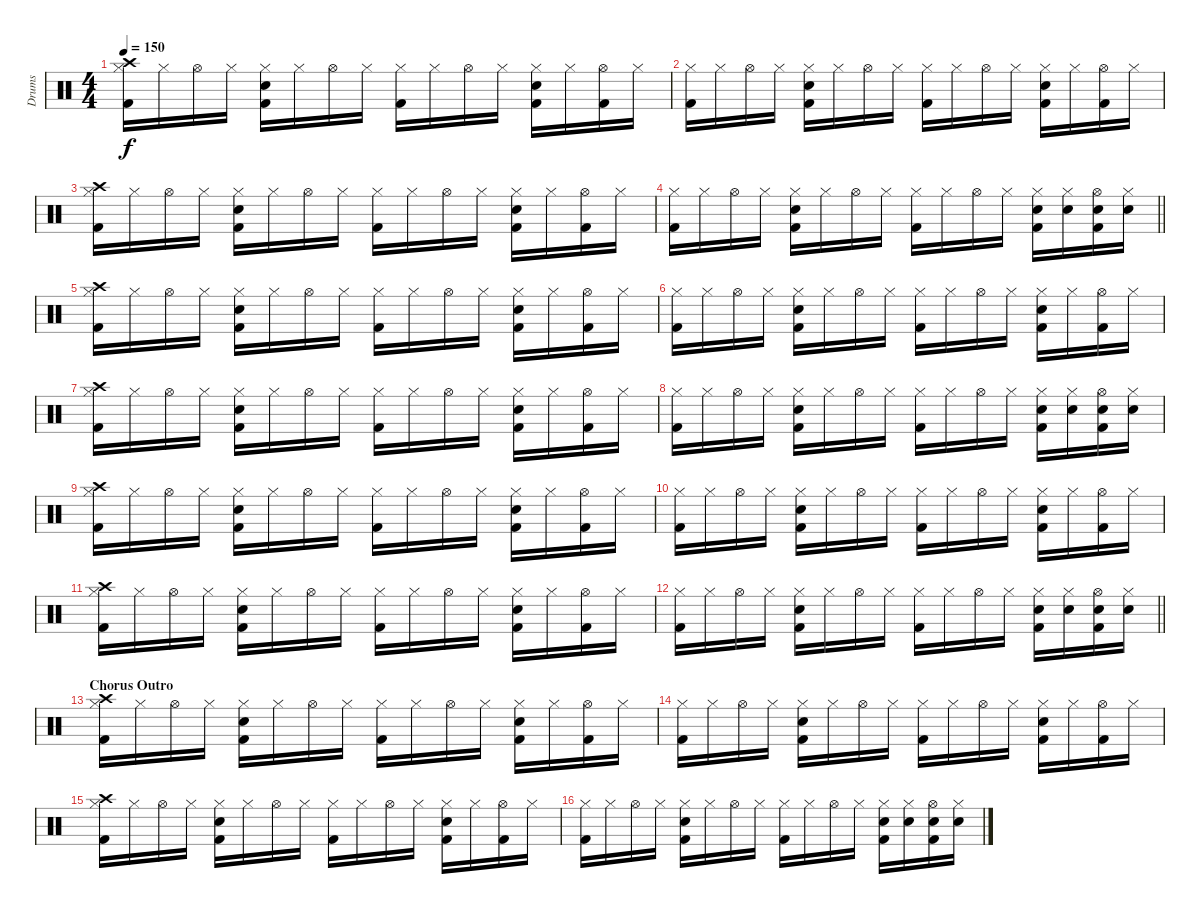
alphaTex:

\track ("Drums" "Drums") {instrument percussion}
\staff {score}
\articulation defaults
\ts (4 4)
\tempo 150
\clef neutral
\ks c
("Crash high (hit)" "Hi-Hat (closed)" "Kick (hit) 2").16{dy f} "Hi-Hat (closed)".16 "Hi-Hat (open)".16 "Hi-Hat (closed)".16 ("Hi-Hat (closed)" "Electric Snare (hit)" "Kick (hit) 2").16 "Hi-Hat (closed)".16 "Hi-Hat (open)".16 "Hi-Hat (closed)".16 ("Hi-Hat (closed)" "Kick (hit) 2").16 "Hi-Hat (closed)".16 "Hi-Hat (open)".16 "Hi-Hat (closed)".16 ("Hi-Hat (closed)" "Electric Snare (hit)" "Kick (hit) 2").16 "Hi-Hat (closed)".16 ("Hi-Hat (open)" "Kick (hit) 2").16 "Hi-Hat (closed)".16 |
("Hi-Hat (closed)" "Kick (hit) 2").16 "Hi-Hat (closed)".16 "Hi-Hat (open)".16 "Hi-Hat (closed)".16 ("Hi-Hat (closed)" "Electric Snare (hit)" "Kick (hit) 2").16 "Hi-Hat (closed)".16 "Hi-Hat (open)".16 "Hi-Hat (closed)".16 ("Hi-Hat (closed)" "Kick (hit) 2").16 "Hi-Hat (closed)".16 "Hi-Hat (open)".16 "Hi-Hat (closed)".16 ("Hi-Hat (closed)" "Electric Snare (hit)" "Kick (hit) 2").16 "Hi-Hat (closed)".16 ("Hi-Hat (open)" "Kick (hit) 2").16 "Hi-Hat (closed)".16 |
("Crash high (hit)" "Hi-Hat (closed)" "Kick (hit) 2").16 "Hi-Hat (closed)".16 "Hi-Hat (open)".16 "Hi-Hat (closed)".16 ("Hi-Hat (closed)" "Electric Snare (hit)" "Kick (hit) 2").16 "Hi-Hat (closed)".16 "Hi-Hat (open)".16 "Hi-Hat (closed)".16 ("Hi-Hat (closed)" "Kick (hit) 2").16 "Hi-Hat (closed)".16 "Hi-Hat (open)".16 "Hi-Hat (closed)".16 ("Hi-Hat (closed)" "Electric Snare (hit)" "Kick (hit) 2").16 "Hi-Hat (closed)".16 ("Hi-Hat (open)" "Kick (hit) 2").16 "Hi-Hat (closed)".16 |
\barLineRight lightlight
("Hi-Hat (closed)" "Kick (hit) 2").16 "Hi-Hat (closed)".16 "Hi-Hat (open)".16 "Hi-Hat (closed)".16 ("Hi-Hat (closed)" "Electric Snare (hit)" "Kick (hit) 2").16 "Hi-Hat (closed)".16 "Hi-Hat (open)".16 "Hi-Hat (closed)".16 ("Hi-Hat (closed)" "Kick (hit) 2").16 "Hi-Hat (closed)".16 "Hi-Hat (open)".16 "Hi-Hat (closed)".16 ("Hi-Hat (closed)" "Electric Snare (hit)" "Kick (hit) 2").16 ("Hi-Hat (closed)" "Electric Snare (hit)").16 ("Hi-Hat (open)" "Electric Snare (hit)" "Kick (hit) 2").16 ("Hi-Hat (closed)" "Electric Snare (hit)").16 |
("Crash high (hit)" "Hi-Hat (closed)" "Kick (hit) 2").16 "Hi-Hat (closed)".16 "Hi-Hat (open)".16 "Hi-Hat (closed)".16 ("Hi-Hat (closed)" "Electric Snare (hit)" "Kick (hit) 2").16 "Hi-Hat (closed)".16 "Hi-Hat (open)".16 "Hi-Hat (closed)".16 ("Hi-Hat (closed)" "Kick (hit) 2").16 "Hi-Hat (closed)".16 "Hi-Hat (open)".16 "Hi-Hat (closed)".16 ("Hi-Hat (closed)" "Electric Snare (hit)" "Kick (hit) 2").16 "Hi-Hat (closed)".16 ("Hi-Hat (open)" "Kick (hit) 2").16 "Hi-Hat (closed)".16 |
("Hi-Hat (closed)" "Kick (hit) 2").16 "Hi-Hat (closed)".16 "Hi-Hat (open)".16 "Hi-Hat (closed)".16 ("Hi-Hat (closed)" "Electric Snare (hit)" "Kick (hit) 2").16 "Hi-Hat (closed)".16 "Hi-Hat (open)".16 "Hi-Hat (closed)".16 ("Hi-Hat (closed)" "Kick (hit) 2").16 "Hi-Hat (closed)".16 "Hi-Hat (open)".16 "Hi-Hat (closed)".16 ("Hi-Hat (closed)" "Electric Snare (hit)" "Kick (hit) 2").16 "Hi-Hat (closed)".16 ("Hi-Hat (open)" "Kick (hit) 2").16 "Hi-Hat (closed)".16 |
("Crash high (hit)" "Hi-Hat (closed)" "Kick (hit) 2").16 "Hi-Hat (closed)".16 "Hi-Hat (open)".16 "Hi-Hat (closed)".16 ("Hi-Hat (closed)" "Electric Snare (hit)" "Kick (hit) 2").16 "Hi-Hat (closed)".16 "Hi-Hat (open)".16 "Hi-Hat (closed)".16 ("Hi-Hat (closed)" "Kick (hit) 2").16 "Hi-Hat (closed)".16 "Hi-Hat (open)".16 "Hi-Hat (closed)".16 ("Hi-Hat (closed)" "Electric Snare (hit)" "Kick (hit) 2").16 "Hi-Hat (closed)".16 ("Hi-Hat (open)" "Kick (hit) 2").16 "Hi-Hat (closed)".16 |
("Hi-Hat (closed)" "Kick (hit) 2").16 "Hi-Hat (closed)".16 "Hi-Hat (open)".16 "Hi-Hat (closed)".16 ("Hi-Hat (closed)" "Electric Snare (hit)" "Kick (hit) 2").16 "Hi-Hat (closed)".16 "Hi-Hat (open)".16 "Hi-Hat (closed)".16 ("Hi-Hat (closed)" "Kick (hit) 2").16 "Hi-Hat (closed)".16 "Hi-Hat (open)".16 "Hi-Hat (closed)".16 ("Hi-Hat (closed)" "Electric Snare (hit)" "Kick (hit) 2").16 ("Hi-Hat (closed)" "Electric Snare (hit)").16 ("Hi-Hat (open)" "Electric Snare (hit)" "Kick (hit) 2").16 ("Hi-Hat (closed)" "Electric Snare (hit)").16 |
("Crash high (hit)" "Hi-Hat (closed)" "Kick (hit) 2").16 "Hi-Hat (closed)".16 "Hi-Hat (open)".16 "Hi-Hat (closed)".16 ("Hi-Hat (closed)" "Electric Snare (hit)" "Kick (hit) 2").16 "Hi-Hat (closed)".16 "Hi-Hat (open)".16 "Hi-Hat (closed)".16 ("Hi-Hat (closed)" "Kick (hit) 2").16 "Hi-Hat (closed)".16 "Hi-Hat (open)".16 "Hi-Hat (closed)".16 ("Hi-Hat (closed)" "Electric Snare (hit)" "Kick (hit) 2").16 "Hi-Hat (closed)".16 ("Hi-Hat (open)" "Kick (hit) 2").16 "Hi-Hat (closed)".16 |
("Hi-Hat (closed)" "Kick (hit) 2").16 "Hi-Hat (closed)".16 "Hi-Hat (open)".16 "Hi-Hat (closed)".16 ("Hi-Hat (closed)" "Electric Snare (hit)" "Kick (hit) 2").16 "Hi-Hat (closed)".16 "Hi-Hat (open)".16 "Hi-Hat (closed)".16 ("Hi-Hat (closed)" "Kick (hit) 2").16 "Hi-Hat (closed)".16 "Hi-Hat (open)".16 "Hi-Hat (closed)".16 ("Hi-Hat (closed)" "Electric Snare (hit)" "Kick (hit) 2").16 "Hi-Hat (closed)".16 ("Hi-Hat (open)" "Kick (hit) 2").16 "Hi-Hat (closed)".16 |
("Crash high (hit)" "Hi-Hat (closed)" "Kick (hit) 2").16 "Hi-Hat (closed)".16 "Hi-Hat (open)".16 "Hi-Hat (closed)".16 ("Hi-Hat (closed)" "Electric Snare (hit)" "Kick (hit) 2").16 "Hi-Hat (closed)".16 "Hi-Hat (open)".16 "Hi-Hat (closed)".16 ("Hi-Hat (closed)" "Kick (hit) 2").16 "Hi-Hat (closed)".16 "Hi-Hat (open)".16 "Hi-Hat (closed)".16 ("Hi-Hat (closed)" "Electric Snare (hit)" "Kick (hit) 2").16 "Hi-Hat (closed)".16 ("Hi-Hat (open)" "Kick (hit) 2").16 "Hi-Hat (closed)".16 |
\barLineRight lightlight
("Hi-Hat (closed)" "Kick (hit) 2").16 "Hi-Hat (closed)".16 "Hi-Hat (open)".16 "Hi-Hat (closed)".16 ("Hi-Hat (closed)" "Electric Snare (hit)" "Kick (hit) 2").16 "Hi-Hat (closed)".16 "Hi-Hat (open)".16 "Hi-Hat (closed)".16 ("Hi-Hat (closed)" "Kick (hit) 2").16 "Hi-Hat (closed)".16 "Hi-Hat (open)".16 "Hi-Hat (closed)".16 ("Hi-Hat (closed)" "Electric Snare (hit)" "Kick (hit) 2").16 ("Hi-Hat (closed)" "Electric Snare (hit)").16 ("Hi-Hat (open)" "Electric Snare (hit)" "Kick (hit) 2").16 ("Hi-Hat (closed)" "Electric Snare (hit)").16 |
\section ("" "Chorus Outro")
("Crash high (hit)" "Hi-Hat (closed)" "Kick (hit) 2").16 "Hi-Hat (closed)".16 "Hi-Hat (open)".16 "Hi-Hat (closed)".16 ("Hi-Hat (closed)" "Electric Snare (hit)" "Kick (hit) 2").16 "Hi-Hat (closed)".16 "Hi-Hat (open)".16 "Hi-Hat (closed)".16 ("Hi-Hat (closed)" "Kick (hit) 2").16 "Hi-Hat (closed)".16 "Hi-Hat (open)".16 "Hi-Hat (closed)".16 ("Hi-Hat (closed)" "Electric Snare (hit)" "Kick (hit) 2").16 "Hi-Hat (closed)".16 ("Hi-Hat (open)" "Kick (hit) 2").16 "Hi-Hat (closed)".16 |
("Hi-Hat (closed)" "Kick (hit) 2").16 "Hi-Hat (closed)".16 "Hi-Hat (open)".16 "Hi-Hat (closed)".16 ("Hi-Hat (closed)" "Electric Snare (hit)" "Kick (hit) 2").16 "Hi-Hat (closed)".16 "Hi-Hat (open)".16 "Hi-Hat (closed)".16 ("Hi-Hat (closed)" "Kick (hit) 2").16 "Hi-Hat (closed)".16 "Hi-Hat (open)".16 "Hi-Hat (closed)".16 ("Hi-Hat (closed)" "Electric Snare (hit)" "Kick (hit) 2").16 "Hi-Hat (closed)".16 ("Hi-Hat (open)" "Kick (hit) 2").16 "Hi-Hat (closed)".16 |
("Crash high (hit)" "Hi-Hat (closed)" "Kick (hit) 2").16 "Hi-Hat (closed)".16 "Hi-Hat (open)".16 "Hi-Hat (closed)".16 ("Hi-Hat (closed)" "Electric Snare (hit)" "Kick (hit) 2").16 "Hi-Hat (closed)".16 "Hi-Hat (open)".16 "Hi-Hat (closed)".16 ("Hi-Hat (closed)" "Kick (hit) 2").16 "Hi-Hat (closed)".16 "Hi-Hat (open)".16 "Hi-Hat (closed)".16 ("Hi-Hat (closed)" "Electric Snare (hit)" "Kick (hit) 2").16 "Hi-Hat (closed)".16 ("Hi-Hat (open)" "Kick (hit) 2").16 "Hi-Hat (closed)".16 |
("Hi-Hat (closed)" "Kick (hit) 2").16 "Hi-Hat (closed)".16 "Hi-Hat (open)".16 "Hi-Hat (closed)".16 ("Hi-Hat (closed)" "Electric Snare (hit)" "Kick (hit) 2").16 "Hi-Hat (closed)".16 "Hi-Hat (open)".16 "Hi-Hat (closed)".16 ("Hi-Hat (closed)" "Kick (hit) 2").16 "Hi-Hat (closed)".16 "Hi-Hat (open)".16 "Hi-Hat (closed)".16 ("Hi-Hat (closed)" "Electric Snare (hit)" "Kick (hit) 2").16 ("Hi-Hat (closed)" "Electric Snare (hit)").16 ("Hi-Hat (open)" "Electric Snare (hit)" "Kick (hit) 2").16 ("Hi-Hat (closed)" "Electric Snare (hit)").16
